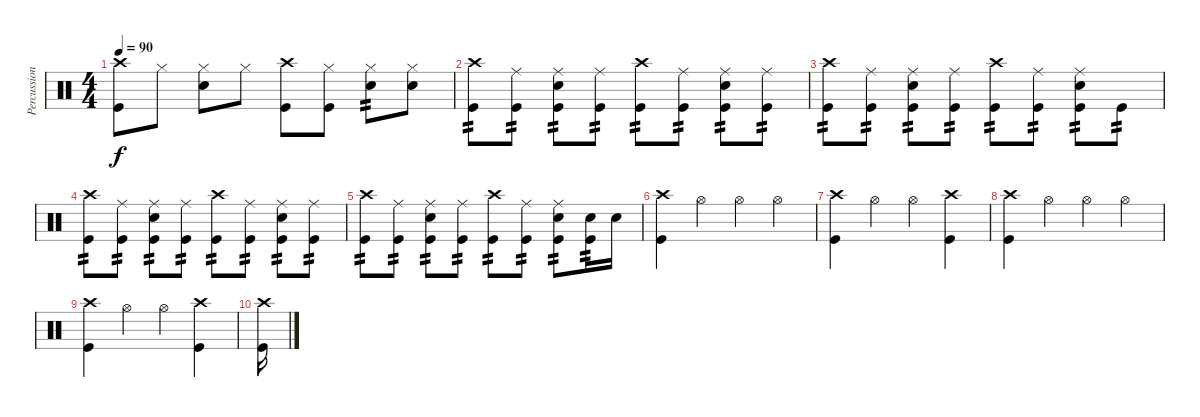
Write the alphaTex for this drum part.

\track ("Percussion" "Percussion") {instrument percussion}
\staff {score}
\articulation defaults
\ts (4 4)
\tempo 90
\clef neutral
\ks c
("Crash high (hit)" "Kick (hit)").8{dy f} "Hi-Hat (closed)".8 ("Hi-Hat (closed)" "Electric Snare (hit)").8 "Hi-Hat (closed)".8 ("Crash high (hit)" "Kick (hit)").8 ("Hi-Hat (closed)" "Kick (hit)").8 ("Hi-Hat (closed)" "Electric Snare (hit)").8{tp 2} ("Hi-Hat (closed)" "Electric Snare (hit)").8 |
("Crash high (hit)" "Kick (hit)").8{tp 2} ("Ride (middle)" "Kick (hit)").8{tp 2} ("Ride (middle)" "Kick (hit)" "Electric Snare (hit)").8{tp 2} ("Ride (middle)" "Kick (hit)").8{tp 2} ("Crash high (hit)" "Kick (hit)").8{tp 2} ("Ride (middle)" "Kick (hit)").8{tp 2} ("Ride (middle)" "Kick (hit)" "Electric Snare (hit)").8{tp 2} ("Ride (middle)" "Kick (hit)").8{tp 2} |
("Crash high (hit)" "Kick (hit)").8{tp 2} ("Ride (middle)" "Kick (hit)").8{tp 2} ("Ride (middle)" "Kick (hit)" "Electric Snare (hit)").8{tp 2} ("Ride (middle)" "Kick (hit)").8{tp 2} ("Crash high (hit)" "Kick (hit)").8{tp 2} ("Ride (middle)" "Kick (hit)").8{tp 2} ("Ride (middle)" "Kick (hit)" "Electric Snare (hit)").8{tp 2} "Kick (hit)".8{tp 2} |
("Crash high (hit)" "Kick (hit)").8{tp 2} ("Ride (middle)" "Kick (hit)").8{tp 2} ("Ride (middle)" "Kick (hit)" "Electric Snare (hit)").8{tp 2} ("Ride (middle)" "Kick (hit)").8{tp 2} ("Crash high (hit)" "Kick (hit)").8{tp 2} ("Ride (middle)" "Kick (hit)").8{tp 2} ("Ride (middle)" "Kick (hit)" "Electric Snare (hit)").8{tp 2} ("Ride (middle)" "Kick (hit)").8{tp 2} |
("Crash high (hit)" "Kick (hit)").8{tp 2} ("Ride (middle)" "Kick (hit)").8{tp 2} ("Ride (middle)" "Kick (hit)" "Electric Snare (hit)").8{tp 2} ("Ride (middle)" "Kick (hit)").8{tp 2} ("Crash high (hit)" "Kick (hit)").8{tp 2} ("Ride (middle)" "Kick (hit)").8{tp 2} ("Ride (middle)" "Kick (hit)" "Electric Snare (hit)").8{tp 2} ("Electric Snare (hit)" "Kick (hit)").16{tp 2} "Electric Snare (hit)".16 |
("Crash high (hit)" "Kick (hit)").4 "Hi-Hat (open)".4 "Hi-Hat (open)".4 "Hi-Hat (open)".4 |
("Crash high (hit)" "Kick (hit)").4 "Hi-Hat (open)".4 "Hi-Hat (open)".4 ("Crash high (hit)" "Kick (hit)").4 |
("Crash high (hit)" "Kick (hit)").4 "Hi-Hat (open)".4 "Hi-Hat (open)".4 "Hi-Hat (open)".4 |
("Crash high (hit)" "Kick (hit)").4 "Hi-Hat (open)".4 "Hi-Hat (open)".4 ("Crash high (hit)" "Kick (hit)").4 |
("Crash high (hit)" "Kick (hit)").16
